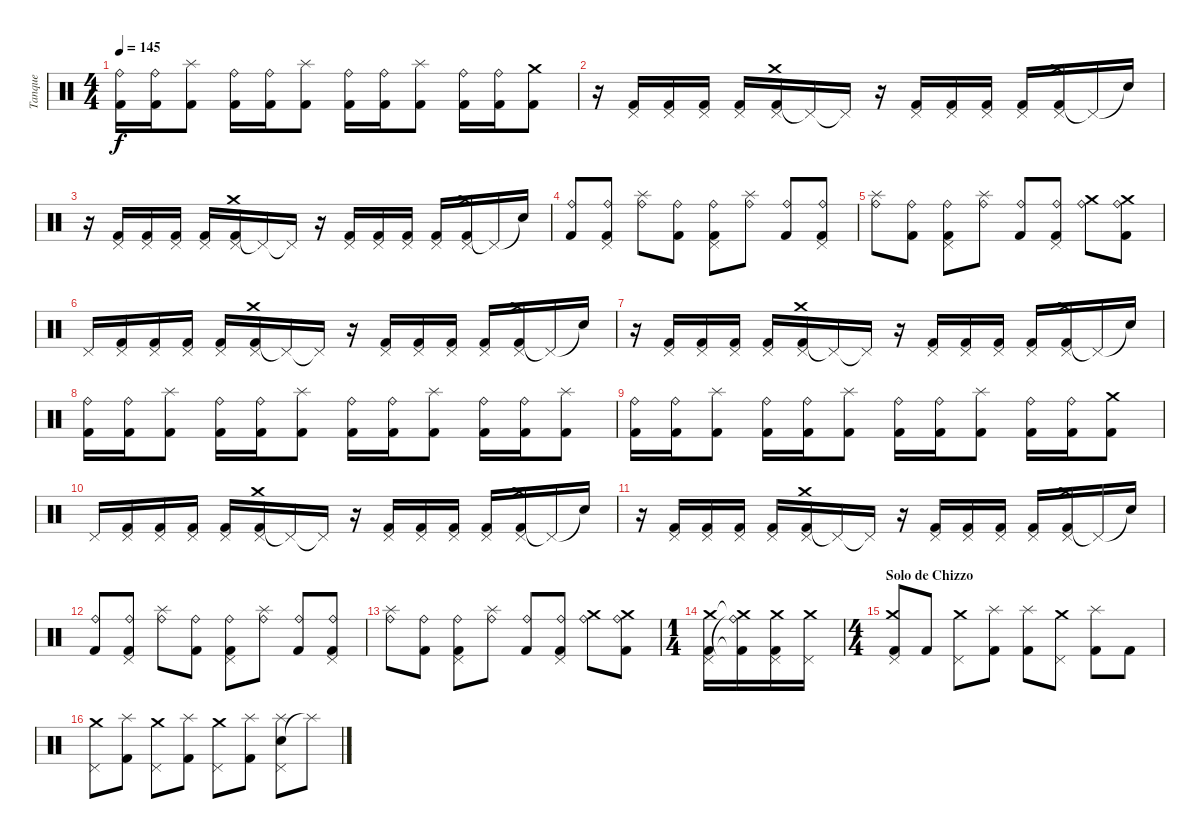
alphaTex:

\track ("Tanque" "Tanque") {instrument percussion}
\staff {score}
\articulation defaults
\ts (4 4)
\tempo 145
\clef neutral
\ks c
("Kick (hit) 2" "Ride (bell)").16{dy f} ("Kick (hit) 2" "Ride (bell)").16 ("Kick (hit) 2" "Splash (hit)").8 ("Kick (hit) 2" "Ride (bell)").16 ("Kick (hit) 2" "Ride (bell)").16 ("Kick (hit) 2" "Splash (hit)").8 ("Kick (hit) 2" "Ride (bell)").16 ("Kick (hit) 2" "Ride (bell)").16 ("Kick (hit) 2" "Splash (hit)").8 ("Kick (hit) 2" "Ride (bell)").16 ("Kick (hit) 2" "Ride (bell)").16 ("Kick (hit) 2" "Crash medium (hit)").8 |
r.16 ("Kick (hit) 2" "Pedal Hi-Hat (hit)").16 ("Kick (hit) 2" "Pedal Hi-Hat (hit)").16 ("Kick (hit) 2" "Pedal Hi-Hat (hit)").16 ("Kick (hit) 2" "Pedal Hi-Hat (hit)").16 ("Kick (hit) 2" "Pedal Hi-Hat (hit)" "Crash medium (hit)").16 "Pedal Hi-Hat (hit)"{t}.16 "Pedal Hi-Hat (hit)"{t}.16 r.16 ("Kick (hit) 2" "Pedal Hi-Hat (hit)").16 ("Kick (hit) 2" "Pedal Hi-Hat (hit)").16 ("Kick (hit) 2" "Pedal Hi-Hat (hit)").16 ("Kick (hit) 2" "Pedal Hi-Hat (hit)").16 ("Kick (hit) 2" "Pedal Hi-Hat (hit)" "Crash medium (hit)").16 "Pedal Hi-Hat (hit)"{t}.16 "Snare (hit)"{t}.16 |
r.16 ("Kick (hit) 2" "Pedal Hi-Hat (hit)").16 ("Kick (hit) 2" "Pedal Hi-Hat (hit)").16 ("Kick (hit) 2" "Pedal Hi-Hat (hit)").16 ("Kick (hit) 2" "Pedal Hi-Hat (hit)").16 ("Kick (hit) 2" "Pedal Hi-Hat (hit)" "Crash medium (hit)").16 "Pedal Hi-Hat (hit)"{t}.16 "Pedal Hi-Hat (hit)"{t}.16 r.16 ("Kick (hit) 2" "Pedal Hi-Hat (hit)").16 ("Kick (hit) 2" "Pedal Hi-Hat (hit)").16 ("Kick (hit) 2" "Pedal Hi-Hat (hit)").16 ("Kick (hit) 2" "Pedal Hi-Hat (hit)").16 ("Kick (hit) 2" "Pedal Hi-Hat (hit)" "Crash medium (hit)").16 "Pedal Hi-Hat (hit)"{t}.16 "Snare (hit)"{t}.16 |
("Kick (hit) 2" "Ride (bell)").8 ("Kick (hit) 2" "Ride (bell)" "Pedal Hi-Hat (hit)").8 ("Ride (bell)" "Splash (hit)").8 ("Kick (hit) 2" "Ride (bell)").8 ("Kick (hit) 2" "Ride (bell)" "Pedal Hi-Hat (hit)").8 ("Ride (bell)" "Splash (hit)").8 ("Kick (hit) 2" "Ride (bell)").8 ("Kick (hit) 2" "Ride (bell)" "Pedal Hi-Hat (hit)").8 |
("Ride (bell)" "Splash (hit)").8 ("Kick (hit) 2" "Ride (bell)").8 ("Kick (hit) 2" "Ride (bell)" "Pedal Hi-Hat (hit)").8 ("Ride (bell)" "Splash (hit)").8 ("Kick (hit) 2" "Ride (bell)").8 ("Kick (hit) 2" "Ride (bell)" "Pedal Hi-Hat (hit)").8 ("Ride (bell)" "Crash medium (hit)").8 ("Kick (hit) 2" "Ride (bell)" "Crash medium (hit)").8 |
"Pedal Hi-Hat (hit)".16 ("Kick (hit) 2" "Pedal Hi-Hat (hit)").16 ("Kick (hit) 2" "Pedal Hi-Hat (hit)").16 ("Kick (hit) 2" "Pedal Hi-Hat (hit)").16 ("Kick (hit) 2" "Pedal Hi-Hat (hit)").16 ("Kick (hit) 2" "Pedal Hi-Hat (hit)" "Crash medium (hit)").16 "Pedal Hi-Hat (hit)"{t}.16 "Pedal Hi-Hat (hit)"{t}.16 r.16 ("Kick (hit) 2" "Pedal Hi-Hat (hit)").16 ("Kick (hit) 2" "Pedal Hi-Hat (hit)").16 ("Kick (hit) 2" "Pedal Hi-Hat (hit)").16 ("Kick (hit) 2" "Pedal Hi-Hat (hit)").16 ("Kick (hit) 2" "Pedal Hi-Hat (hit)" "Crash medium (hit)").16 "Pedal Hi-Hat (hit)"{t}.16 "Snare (hit)"{t}.16 |
r.16 ("Kick (hit) 2" "Pedal Hi-Hat (hit)").16 ("Kick (hit) 2" "Pedal Hi-Hat (hit)").16 ("Kick (hit) 2" "Pedal Hi-Hat (hit)").16 ("Kick (hit) 2" "Pedal Hi-Hat (hit)").16 ("Kick (hit) 2" "Pedal Hi-Hat (hit)" "Crash medium (hit)").16 "Pedal Hi-Hat (hit)"{t}.16 "Pedal Hi-Hat (hit)"{t}.16 r.16 ("Kick (hit) 2" "Pedal Hi-Hat (hit)").16 ("Kick (hit) 2" "Pedal Hi-Hat (hit)").16 ("Kick (hit) 2" "Pedal Hi-Hat (hit)").16 ("Kick (hit) 2" "Pedal Hi-Hat (hit)").16 ("Kick (hit) 2" "Pedal Hi-Hat (hit)" "Crash medium (hit)").16 "Pedal Hi-Hat (hit)"{t}.16 "Snare (hit)"{t}.16 |
("Kick (hit) 2" "Ride (bell)").16 ("Kick (hit) 2" "Ride (bell)").16 ("Kick (hit) 2" "Splash (hit)").8 ("Kick (hit) 2" "Ride (bell)").16 ("Kick (hit) 2" "Ride (bell)").16 ("Kick (hit) 2" "Splash (hit)").8 ("Kick (hit) 2" "Ride (bell)").16 ("Kick (hit) 2" "Ride (bell)").16 ("Kick (hit) 2" "Splash (hit)").8 ("Kick (hit) 2" "Ride (bell)").16 ("Kick (hit) 2" "Ride (bell)").16 ("Kick (hit) 2" "Splash (hit)").8 |
("Kick (hit) 2" "Ride (bell)").16 ("Kick (hit) 2" "Ride (bell)").16 ("Kick (hit) 2" "Splash (hit)").8 ("Kick (hit) 2" "Ride (bell)").16 ("Kick (hit) 2" "Ride (bell)").16 ("Kick (hit) 2" "Splash (hit)").8 ("Kick (hit) 2" "Ride (bell)").16 ("Kick (hit) 2" "Ride (bell)").16 ("Kick (hit) 2" "Splash (hit)").8 ("Kick (hit) 2" "Ride (bell)").16 ("Kick (hit) 2" "Ride (bell)").16 ("Kick (hit) 2" "Crash medium (hit)").8 |
"Pedal Hi-Hat (hit)".16 ("Kick (hit) 2" "Pedal Hi-Hat (hit)").16 ("Kick (hit) 2" "Pedal Hi-Hat (hit)").16 ("Kick (hit) 2" "Pedal Hi-Hat (hit)").16 ("Kick (hit) 2" "Pedal Hi-Hat (hit)").16 ("Kick (hit) 2" "Pedal Hi-Hat (hit)" "Crash medium (hit)").16 "Pedal Hi-Hat (hit)"{t}.16 "Pedal Hi-Hat (hit)"{t}.16 r.16 ("Kick (hit) 2" "Pedal Hi-Hat (hit)").16 ("Kick (hit) 2" "Pedal Hi-Hat (hit)").16 ("Kick (hit) 2" "Pedal Hi-Hat (hit)").16 ("Kick (hit) 2" "Pedal Hi-Hat (hit)").16 ("Kick (hit) 2" "Pedal Hi-Hat (hit)" "Crash medium (hit)").16 "Pedal Hi-Hat (hit)"{t}.16 "Snare (hit)"{t}.16 |
r.16 ("Kick (hit) 2" "Pedal Hi-Hat (hit)").16 ("Kick (hit) 2" "Pedal Hi-Hat (hit)").16 ("Kick (hit) 2" "Pedal Hi-Hat (hit)").16 ("Kick (hit) 2" "Pedal Hi-Hat (hit)").16 ("Kick (hit) 2" "Pedal Hi-Hat (hit)" "Crash medium (hit)").16 "Pedal Hi-Hat (hit)"{t}.16 "Pedal Hi-Hat (hit)"{t}.16 r.16 ("Kick (hit) 2" "Pedal Hi-Hat (hit)").16 ("Kick (hit) 2" "Pedal Hi-Hat (hit)").16 ("Kick (hit) 2" "Pedal Hi-Hat (hit)").16 ("Kick (hit) 2" "Pedal Hi-Hat (hit)").16 ("Kick (hit) 2" "Pedal Hi-Hat (hit)" "Crash medium (hit)").16 "Pedal Hi-Hat (hit)"{t}.16 "Snare (hit)"{t}.16 |
("Kick (hit) 2" "Ride (bell)").8 ("Kick (hit) 2" "Ride (bell)" "Pedal Hi-Hat (hit)").8 ("Ride (bell)" "Splash (hit)").8 ("Kick (hit) 2" "Ride (bell)").8 ("Kick (hit) 2" "Ride (bell)" "Pedal Hi-Hat (hit)").8 ("Ride (bell)" "Splash (hit)").8 ("Kick (hit) 2" "Ride (bell)").8 ("Kick (hit) 2" "Ride (bell)" "Pedal Hi-Hat (hit)").8 |
("Ride (bell)" "Splash (hit)").8 ("Kick (hit) 2" "Ride (bell)").8 ("Kick (hit) 2" "Ride (bell)" "Pedal Hi-Hat (hit)").8 ("Ride (bell)" "Splash (hit)").8 ("Kick (hit) 2" "Ride (bell)").8 ("Kick (hit) 2" "Ride (bell)" "Pedal Hi-Hat (hit)").8 ("Ride (bell)" "Crash medium (hit)").8 ("Kick (hit) 2" "Ride (bell)" "Crash medium (hit)").8 |
\ts (1 4)
("Kick (hit) 2" "Pedal Hi-Hat (hit)" "Crash medium (hit)").16 ("Kick (hit) 2"{t} "Ride (bell)"{t} "Crash medium (hit)"{t}).16 ("Kick (hit) 2" "Pedal Hi-Hat (hit)" "Crash medium (hit)").16 ("Pedal Hi-Hat (hit)" "Crash medium (hit)").16 |
\ts (4 4)
\section ("" "Solo de Chizzo")
("Kick (hit) 2" "Crash medium (hit)" "Pedal Hi-Hat (hit)").8 "Kick (hit) 2".8 ("Crash medium (hit)" "Pedal Hi-Hat (hit)").8 ("Kick (hit) 2" "Splash (hit)").8 ("Kick (hit) 2" "Splash (hit)").8 ("Crash medium (hit)" "Pedal Hi-Hat (hit)").8 ("Kick (hit) 2" "Splash (hit)").8 "Kick (hit) 2".8 |
("Crash medium (hit)" "Pedal Hi-Hat (hit)").8 ("Kick (hit) 2" "Splash (hit)").8 ("Crash medium (hit)" "Pedal Hi-Hat (hit)").8 ("Kick (hit) 2" "Splash (hit)").8 ("Crash medium (hit)" "Pedal Hi-Hat (hit)").8 ("Kick (hit) 2" "Splash (hit)").8 ("Snare (hit) 2" "Splash (hit)" "Pedal Hi-Hat (hit)").8 "Splash (hit)"{t}.8
